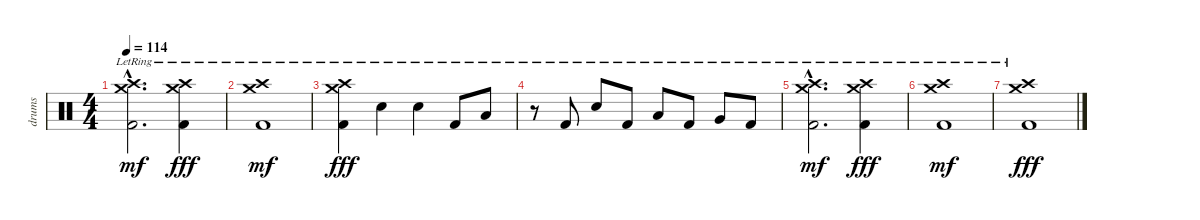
\track ("drums" "drums") {instrument percussion}
\staff {score}
\articulation defaults
\ts (4 4)
\tempo 114
\clef neutral
\ks c
("Kick (hit) 2"{hac lr} "Crash high (hit)"{hac lr} "Crash medium (hit)"{hac lr}).2{d dy mf} ("Kick (hit) 2"{lr} "Crash high (hit)"{lr} "Crash medium (hit)"{lr}).4{dy fff} |
("Kick (hit) 2"{lr} "Crash high (hit)"{lr} "Crash medium (hit)"{lr}).1{dy mf} |
("Kick (hit) 2"{lr} "Crash high (hit)"{lr} "Crash medium (hit)"{lr}).4{dy fff} "Snare (hit) 2"{lr}.4 "Snare (hit) 2"{lr}.4 "Kick (hit) 2"{lr}.8 "Low Tom (hit)"{lr}.8 |
r.8 "Kick (hit) 2"{lr}.8 "Snare (hit) 2"{lr}.8 "Kick (hit) 2"{lr}.8 "Low Tom (hit)"{lr}.8 "Kick (hit) 2"{lr}.8 "Very Low Tom (hit)"{lr}.8 "Kick (hit) 2"{lr}.8 |
("Kick (hit) 2"{hac lr} "Crash high (hit)"{hac lr} "Crash medium (hit)"{hac lr}).2{d dy mf} ("Kick (hit) 2"{lr} "Crash high (hit)"{lr} "Crash medium (hit)"{lr}).4{dy fff} |
("Kick (hit) 2"{lr} "Crash high (hit)"{lr} "Crash medium (hit)"{lr}).1{dy mf} |
("Kick (hit) 2"{lr} "Crash high (hit)"{lr} "Crash medium (hit)"{lr}).1{dy fff}
